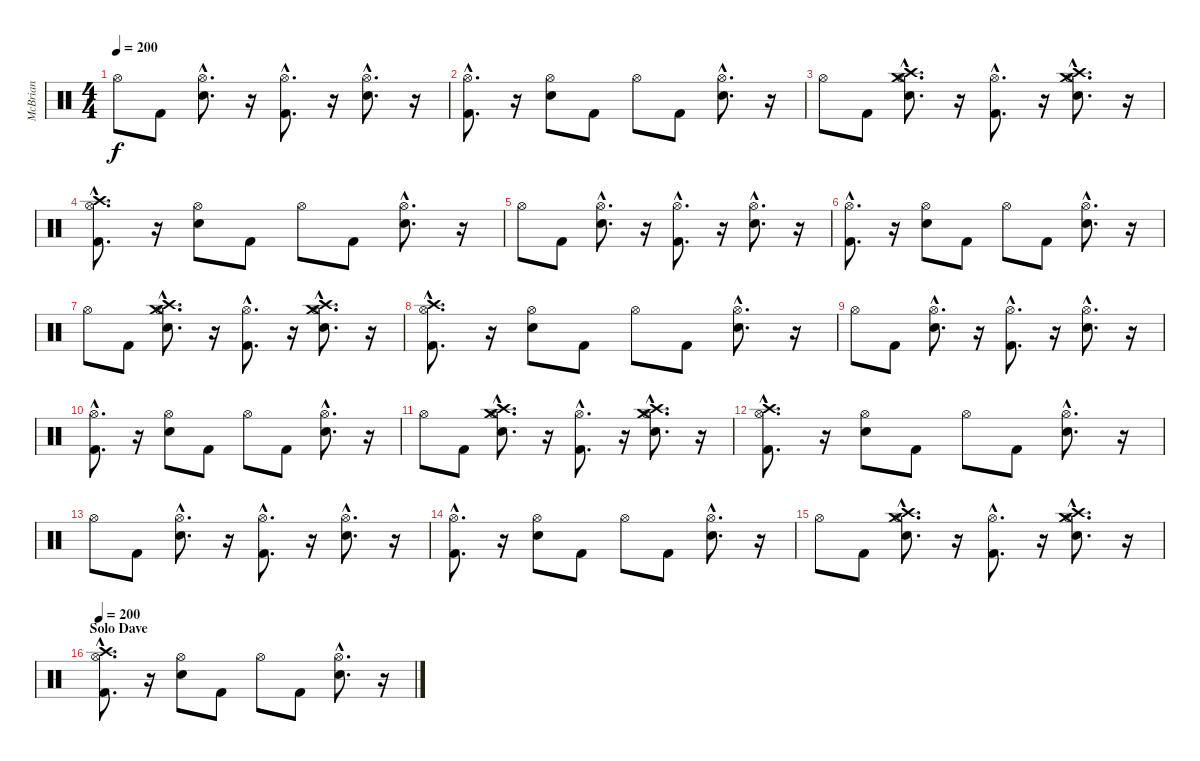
\track ("McBrian" "McBrian") {instrument percussion}
\staff {score}
\articulation defaults
\ts (4 4)
\tempo 200
\clef neutral
\ks c "Hi-Hat (open)".8{dy f} "Kick (hit) 2".8
("Hi-Hat (open)"{hac} "Snare (hit) 2"{hac}).8{d} r.16 ("Hi-Hat (open)"{hac} "Kick (hit) 2"{hac}).8{d} r.16 ("Snare (hit) 2"{hac} "Hi-Hat (open)"{hac}).8{d} r.16 |
("Hi-Hat (open)"{hac} "Kick (hit) 2"{hac}).8{d} r.16 ("Snare (hit) 2" "Hi-Hat (open)").8 "Kick (hit) 2".8 "Hi-Hat (open)".8 "Kick (hit) 2".8 ("Hi-Hat (open)"{hac} "Snare (hit) 2"{hac}).8{d} r.16 |
"Hi-Hat (open)".8 "Kick (hit) 2".8 ("Crash medium (hit)"{hac} "Snare (hit) 2"{hac} "Hi-Hat (open)"{hac} "Crash high (hit)"{hac}).8{d} r.16 ("Hi-Hat (open)"{hac} "Kick (hit) 2"{hac}).8{d} r.16 ("Snare (hit) 2"{hac} "Hi-Hat (open)"{hac} "Crash high (hit)"{hac} "Crash medium (hit)"{hac}).8{d} r.16 |
("Hi-Hat (open)"{hac} "Crash high (hit)"{hac} "Kick (hit) 2"{hac}).8{d} r.16 ("Snare (hit) 2" "Hi-Hat (open)").8 "Kick (hit) 2".8 "Hi-Hat (open)".8 "Kick (hit) 2".8 ("Hi-Hat (open)"{hac} "Snare (hit) 2"{hac}).8{d} r.16 |
"Hi-Hat (open)".8 "Kick (hit) 2".8 ("Hi-Hat (open)"{hac} "Snare (hit) 2"{hac}).8{d} r.16 ("Hi-Hat (open)"{hac} "Kick (hit) 2"{hac}).8{d} r.16 ("Snare (hit) 2"{hac} "Hi-Hat (open)"{hac}).8{d} r.16 |
("Hi-Hat (open)"{hac} "Kick (hit) 2"{hac}).8{d} r.16 ("Snare (hit) 2" "Hi-Hat (open)").8 "Kick (hit) 2".8 "Hi-Hat (open)".8 "Kick (hit) 2".8 ("Hi-Hat (open)"{hac} "Snare (hit) 2"{hac}).8{d} r.16 |
"Hi-Hat (open)".8 "Kick (hit) 2".8 ("Crash medium (hit)"{hac} "Snare (hit) 2"{hac} "Hi-Hat (open)"{hac} "Crash high (hit)"{hac}).8{d} r.16 ("Hi-Hat (open)"{hac} "Kick (hit) 2"{hac}).8{d} r.16 ("Snare (hit) 2"{hac} "Hi-Hat (open)"{hac} "Crash high (hit)"{hac} "Crash medium (hit)"{hac}).8{d} r.16 |
("Hi-Hat (open)"{hac} "Crash high (hit)"{hac} "Kick (hit) 2"{hac}).8{d} r.16 ("Snare (hit) 2" "Hi-Hat (open)").8 "Kick (hit) 2".8 "Hi-Hat (open)".8 "Kick (hit) 2".8 ("Hi-Hat (open)"{hac} "Snare (hit) 2"{hac}).8{d} r.16 |
"Hi-Hat (open)".8 "Kick (hit) 2".8 ("Hi-Hat (open)"{hac} "Snare (hit) 2"{hac}).8{d} r.16 ("Hi-Hat (open)"{hac} "Kick (hit) 2"{hac}).8{d} r.16 ("Snare (hit) 2"{hac} "Hi-Hat (open)"{hac}).8{d} r.16 |
("Hi-Hat (open)"{hac} "Kick (hit) 2"{hac}).8{d} r.16 ("Snare (hit) 2" "Hi-Hat (open)").8 "Kick (hit) 2".8 "Hi-Hat (open)".8 "Kick (hit) 2".8 ("Hi-Hat (open)"{hac} "Snare (hit) 2"{hac}).8{d} r.16 |
"Hi-Hat (open)".8 "Kick (hit) 2".8 ("Crash medium (hit)"{hac} "Snare (hit) 2"{hac} "Hi-Hat (open)"{hac} "Crash high (hit)"{hac}).8{d} r.16 ("Hi-Hat (open)"{hac} "Kick (hit) 2"{hac}).8{d} r.16 ("Snare (hit) 2"{hac} "Hi-Hat (open)"{hac} "Crash high (hit)"{hac} "Crash medium (hit)"{hac}).8{d} r.16 |
("Hi-Hat (open)"{hac} "Crash high (hit)"{hac} "Kick (hit) 2"{hac}).8{d} r.16 ("Snare (hit) 2" "Hi-Hat (open)").8 "Kick (hit) 2".8 "Hi-Hat (open)".8 "Kick (hit) 2".8 ("Hi-Hat (open)"{hac} "Snare (hit) 2"{hac}).8{d} r.16 |
"Hi-Hat (open)".8 "Kick (hit) 2".8 ("Hi-Hat (open)"{hac} "Snare (hit) 2"{hac}).8{d} r.16 ("Hi-Hat (open)"{hac} "Kick (hit) 2"{hac}).8{d} r.16 ("Snare (hit) 2"{hac} "Hi-Hat (open)"{hac}).8{d} r.16 |
("Hi-Hat (open)"{hac} "Kick (hit) 2"{hac}).8{d} r.16 ("Snare (hit) 2" "Hi-Hat (open)").8 "Kick (hit) 2".8 "Hi-Hat (open)".8 "Kick (hit) 2".8 ("Hi-Hat (open)"{hac} "Snare (hit) 2"{hac}).8{d} r.16 |
"Hi-Hat (open)".8 "Kick (hit) 2".8 ("Crash medium (hit)"{hac} "Snare (hit) 2"{hac} "Hi-Hat (open)"{hac} "Crash high (hit)"{hac}).8{d} r.16 ("Hi-Hat (open)"{hac} "Kick (hit) 2"{hac}).8{d} r.16 ("Snare (hit) 2"{hac} "Hi-Hat (open)"{hac} "Crash high (hit)"{hac} "Crash medium (hit)"{hac}).8{d} r.16 |
\section ("" "Solo Dave")
\tempo 200
("Hi-Hat (open)"{hac} "Crash high (hit)"{hac} "Kick (hit) 2"{hac}).8{d} r.16 ("Snare (hit) 2" "Hi-Hat (open)").8 "Kick (hit) 2".8 "Hi-Hat (open)".8 "Kick (hit) 2".8 ("Hi-Hat (open)"{hac} "Snare (hit) 2"{hac}).8{d} r.16
